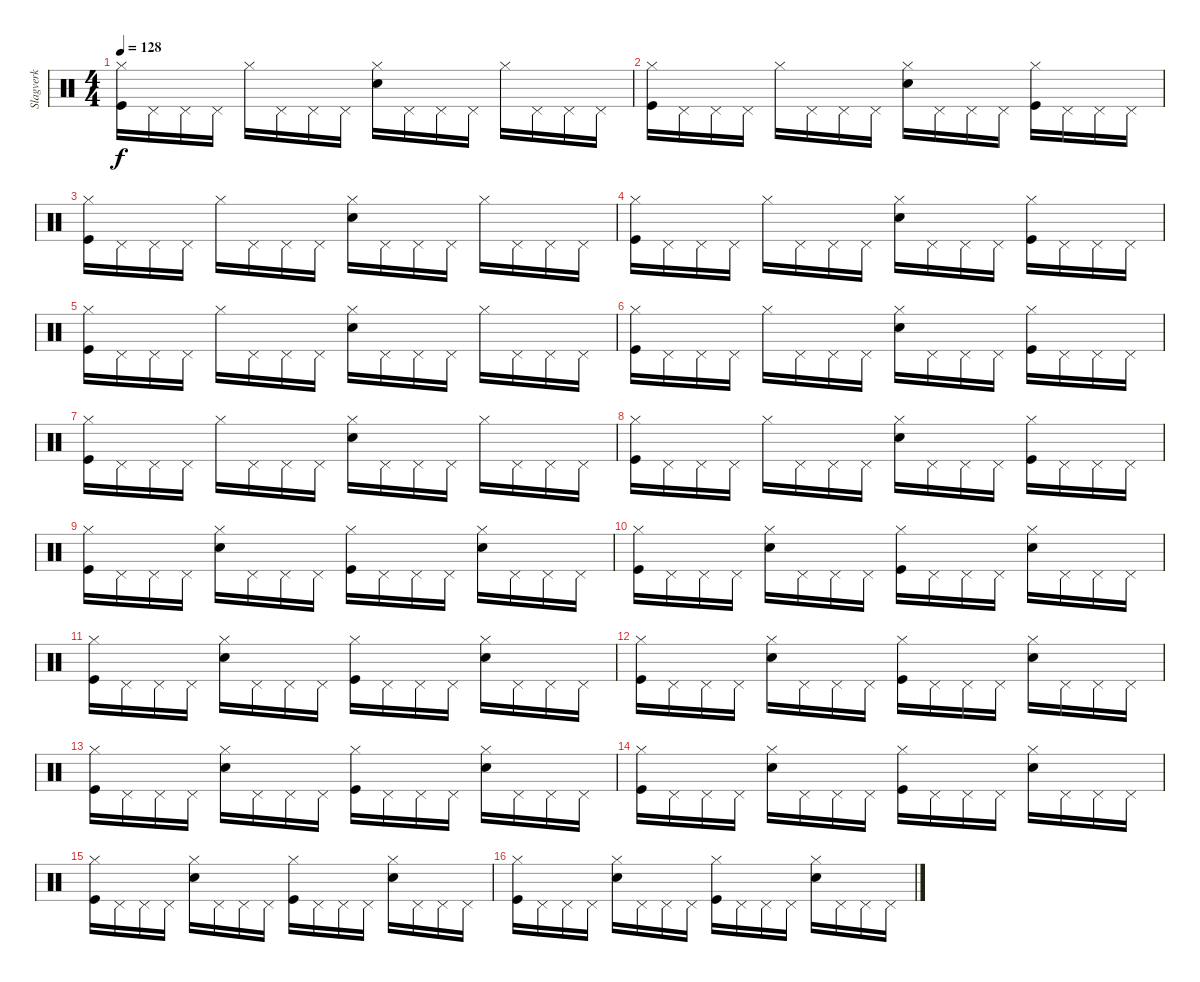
\track ("Slagverk" "Slagverk") {instrument percussion}
\staff {score}
\articulation defaults
\ts (4 4)
\tempo 128
\clef neutral
\ks c
("Kick (hit)" "Hi-Hat (closed)").16{dy f} "Pedal Hi-Hat (hit)".16 "Pedal Hi-Hat (hit)".16 "Pedal Hi-Hat (hit)".16 "Hi-Hat (closed)".16 "Pedal Hi-Hat (hit)".16 "Pedal Hi-Hat (hit)".16 "Pedal Hi-Hat (hit)".16 ("Snare (hit) 2" "Hi-Hat (closed)").16 "Pedal Hi-Hat (hit)".16 "Pedal Hi-Hat (hit)".16 "Pedal Hi-Hat (hit)".16 "Hi-Hat (closed)".16 "Pedal Hi-Hat (hit)".16 "Pedal Hi-Hat (hit)".16 "Pedal Hi-Hat (hit)".16 |
("Kick (hit)" "Hi-Hat (closed)").16 "Pedal Hi-Hat (hit)".16 "Pedal Hi-Hat (hit)".16 "Pedal Hi-Hat (hit)".16 "Hi-Hat (closed)".16 "Pedal Hi-Hat (hit)".16 "Pedal Hi-Hat (hit)".16 "Pedal Hi-Hat (hit)".16 ("Snare (hit) 2" "Hi-Hat (closed)").16 "Pedal Hi-Hat (hit)".16 "Pedal Hi-Hat (hit)".16 "Pedal Hi-Hat (hit)".16 ("Kick (hit)" "Hi-Hat (closed)").16 "Pedal Hi-Hat (hit)".16 "Pedal Hi-Hat (hit)".16 "Pedal Hi-Hat (hit)".16 |
("Kick (hit)" "Hi-Hat (closed)").16 "Pedal Hi-Hat (hit)".16 "Pedal Hi-Hat (hit)".16 "Pedal Hi-Hat (hit)".16 "Hi-Hat (closed)".16 "Pedal Hi-Hat (hit)".16 "Pedal Hi-Hat (hit)".16 "Pedal Hi-Hat (hit)".16 ("Snare (hit) 2" "Hi-Hat (closed)").16 "Pedal Hi-Hat (hit)".16 "Pedal Hi-Hat (hit)".16 "Pedal Hi-Hat (hit)".16 "Hi-Hat (closed)".16 "Pedal Hi-Hat (hit)".16 "Pedal Hi-Hat (hit)".16 "Pedal Hi-Hat (hit)".16 |
("Kick (hit)" "Hi-Hat (closed)").16 "Pedal Hi-Hat (hit)".16 "Pedal Hi-Hat (hit)".16 "Pedal Hi-Hat (hit)".16 "Hi-Hat (closed)".16 "Pedal Hi-Hat (hit)".16 "Pedal Hi-Hat (hit)".16 "Pedal Hi-Hat (hit)".16 ("Snare (hit) 2" "Hi-Hat (closed)").16 "Pedal Hi-Hat (hit)".16 "Pedal Hi-Hat (hit)".16 "Pedal Hi-Hat (hit)".16 ("Kick (hit)" "Hi-Hat (closed)").16 "Pedal Hi-Hat (hit)".16 "Pedal Hi-Hat (hit)".16 "Pedal Hi-Hat (hit)".16 |
("Kick (hit)" "Hi-Hat (closed)").16 "Pedal Hi-Hat (hit)".16 "Pedal Hi-Hat (hit)".16 "Pedal Hi-Hat (hit)".16 "Hi-Hat (closed)".16 "Pedal Hi-Hat (hit)".16 "Pedal Hi-Hat (hit)".16 "Pedal Hi-Hat (hit)".16 ("Snare (hit) 2" "Hi-Hat (closed)").16 "Pedal Hi-Hat (hit)".16 "Pedal Hi-Hat (hit)".16 "Pedal Hi-Hat (hit)".16 "Hi-Hat (closed)".16 "Pedal Hi-Hat (hit)".16 "Pedal Hi-Hat (hit)".16 "Pedal Hi-Hat (hit)".16 |
("Kick (hit)" "Hi-Hat (closed)").16 "Pedal Hi-Hat (hit)".16 "Pedal Hi-Hat (hit)".16 "Pedal Hi-Hat (hit)".16 "Hi-Hat (closed)".16 "Pedal Hi-Hat (hit)".16 "Pedal Hi-Hat (hit)".16 "Pedal Hi-Hat (hit)".16 ("Snare (hit) 2" "Hi-Hat (closed)").16 "Pedal Hi-Hat (hit)".16 "Pedal Hi-Hat (hit)".16 "Pedal Hi-Hat (hit)".16 ("Kick (hit)" "Hi-Hat (closed)").16 "Pedal Hi-Hat (hit)".16 "Pedal Hi-Hat (hit)".16 "Pedal Hi-Hat (hit)".16 |
("Kick (hit)" "Hi-Hat (closed)").16 "Pedal Hi-Hat (hit)".16 "Pedal Hi-Hat (hit)".16 "Pedal Hi-Hat (hit)".16 "Hi-Hat (closed)".16 "Pedal Hi-Hat (hit)".16 "Pedal Hi-Hat (hit)".16 "Pedal Hi-Hat (hit)".16 ("Snare (hit) 2" "Hi-Hat (closed)").16 "Pedal Hi-Hat (hit)".16 "Pedal Hi-Hat (hit)".16 "Pedal Hi-Hat (hit)".16 "Hi-Hat (closed)".16 "Pedal Hi-Hat (hit)".16 "Pedal Hi-Hat (hit)".16 "Pedal Hi-Hat (hit)".16 |
("Kick (hit)" "Hi-Hat (closed)").16 "Pedal Hi-Hat (hit)".16 "Pedal Hi-Hat (hit)".16 "Pedal Hi-Hat (hit)".16 "Hi-Hat (closed)".16 "Pedal Hi-Hat (hit)".16 "Pedal Hi-Hat (hit)".16 "Pedal Hi-Hat (hit)".16 ("Snare (hit) 2" "Hi-Hat (closed)").16 "Pedal Hi-Hat (hit)".16 "Pedal Hi-Hat (hit)".16 "Pedal Hi-Hat (hit)".16 ("Kick (hit)" "Hi-Hat (closed)").16 "Pedal Hi-Hat (hit)".16 "Pedal Hi-Hat (hit)".16 "Pedal Hi-Hat (hit)".16 |
("Kick (hit)" "Hi-Hat (closed)").16 "Pedal Hi-Hat (hit)".16 "Pedal Hi-Hat (hit)".16 "Pedal Hi-Hat (hit)".16 ("Snare (hit) 2" "Hi-Hat (closed)").16 "Pedal Hi-Hat (hit)".16 "Pedal Hi-Hat (hit)".16 "Pedal Hi-Hat (hit)".16 ("Kick (hit)" "Hi-Hat (closed)").16 "Pedal Hi-Hat (hit)".16 "Pedal Hi-Hat (hit)".16 "Pedal Hi-Hat (hit)".16 ("Snare (hit) 2" "Hi-Hat (closed)").16 "Pedal Hi-Hat (hit)".16 "Pedal Hi-Hat (hit)".16 "Pedal Hi-Hat (hit)".16 |
("Kick (hit)" "Hi-Hat (closed)").16 "Pedal Hi-Hat (hit)".16 "Pedal Hi-Hat (hit)".16 "Pedal Hi-Hat (hit)".16 ("Snare (hit) 2" "Hi-Hat (closed)").16 "Pedal Hi-Hat (hit)".16 "Pedal Hi-Hat (hit)".16 "Pedal Hi-Hat (hit)".16 ("Kick (hit)" "Hi-Hat (closed)").16 "Pedal Hi-Hat (hit)".16 "Pedal Hi-Hat (hit)".16 "Pedal Hi-Hat (hit)".16 ("Snare (hit) 2" "Hi-Hat (closed)").16 "Pedal Hi-Hat (hit)".16 "Pedal Hi-Hat (hit)".16 "Pedal Hi-Hat (hit)".16 |
("Kick (hit)" "Hi-Hat (closed)").16 "Pedal Hi-Hat (hit)".16 "Pedal Hi-Hat (hit)".16 "Pedal Hi-Hat (hit)".16 ("Snare (hit) 2" "Hi-Hat (closed)").16 "Pedal Hi-Hat (hit)".16 "Pedal Hi-Hat (hit)".16 "Pedal Hi-Hat (hit)".16 ("Kick (hit)" "Hi-Hat (closed)").16 "Pedal Hi-Hat (hit)".16 "Pedal Hi-Hat (hit)".16 "Pedal Hi-Hat (hit)".16 ("Snare (hit) 2" "Hi-Hat (closed)").16 "Pedal Hi-Hat (hit)".16 "Pedal Hi-Hat (hit)".16 "Pedal Hi-Hat (hit)".16 |
("Kick (hit)" "Hi-Hat (closed)").16 "Pedal Hi-Hat (hit)".16 "Pedal Hi-Hat (hit)".16 "Pedal Hi-Hat (hit)".16 ("Snare (hit) 2" "Hi-Hat (closed)").16 "Pedal Hi-Hat (hit)".16 "Pedal Hi-Hat (hit)".16 "Pedal Hi-Hat (hit)".16 ("Kick (hit)" "Hi-Hat (closed)").16 "Pedal Hi-Hat (hit)".16 "Pedal Hi-Hat (hit)".16 "Pedal Hi-Hat (hit)".16 ("Snare (hit) 2" "Hi-Hat (closed)").16 "Pedal Hi-Hat (hit)".16 "Pedal Hi-Hat (hit)".16 "Pedal Hi-Hat (hit)".16 |
("Kick (hit)" "Hi-Hat (closed)").16 "Pedal Hi-Hat (hit)".16 "Pedal Hi-Hat (hit)".16 "Pedal Hi-Hat (hit)".16 ("Snare (hit) 2" "Hi-Hat (closed)").16 "Pedal Hi-Hat (hit)".16 "Pedal Hi-Hat (hit)".16 "Pedal Hi-Hat (hit)".16 ("Kick (hit)" "Hi-Hat (closed)").16 "Pedal Hi-Hat (hit)".16 "Pedal Hi-Hat (hit)".16 "Pedal Hi-Hat (hit)".16 ("Snare (hit) 2" "Hi-Hat (closed)").16 "Pedal Hi-Hat (hit)".16 "Pedal Hi-Hat (hit)".16 "Pedal Hi-Hat (hit)".16 |
("Kick (hit)" "Hi-Hat (closed)").16 "Pedal Hi-Hat (hit)".16 "Pedal Hi-Hat (hit)".16 "Pedal Hi-Hat (hit)".16 ("Snare (hit) 2" "Hi-Hat (closed)").16 "Pedal Hi-Hat (hit)".16 "Pedal Hi-Hat (hit)".16 "Pedal Hi-Hat (hit)".16 ("Kick (hit)" "Hi-Hat (closed)").16 "Pedal Hi-Hat (hit)".16 "Pedal Hi-Hat (hit)".16 "Pedal Hi-Hat (hit)".16 ("Snare (hit) 2" "Hi-Hat (closed)").16 "Pedal Hi-Hat (hit)".16 "Pedal Hi-Hat (hit)".16 "Pedal Hi-Hat (hit)".16 |
("Kick (hit)" "Hi-Hat (closed)").16 "Pedal Hi-Hat (hit)".16 "Pedal Hi-Hat (hit)".16 "Pedal Hi-Hat (hit)".16 ("Snare (hit) 2" "Hi-Hat (closed)").16 "Pedal Hi-Hat (hit)".16 "Pedal Hi-Hat (hit)".16 "Pedal Hi-Hat (hit)".16 ("Kick (hit)" "Hi-Hat (closed)").16 "Pedal Hi-Hat (hit)".16 "Pedal Hi-Hat (hit)".16 "Pedal Hi-Hat (hit)".16 ("Snare (hit) 2" "Hi-Hat (closed)").16 "Pedal Hi-Hat (hit)".16 "Pedal Hi-Hat (hit)".16 "Pedal Hi-Hat (hit)".16 |
("Kick (hit)" "Hi-Hat (closed)").16 "Pedal Hi-Hat (hit)".16 "Pedal Hi-Hat (hit)".16 "Pedal Hi-Hat (hit)".16 ("Snare (hit) 2" "Hi-Hat (closed)").16 "Pedal Hi-Hat (hit)".16 "Pedal Hi-Hat (hit)".16 "Pedal Hi-Hat (hit)".16 ("Kick (hit)" "Hi-Hat (closed)").16 "Pedal Hi-Hat (hit)".16 "Pedal Hi-Hat (hit)".16 "Pedal Hi-Hat (hit)".16 ("Snare (hit) 2" "Hi-Hat (closed)").16 "Pedal Hi-Hat (hit)".16 "Pedal Hi-Hat (hit)".16 "Pedal Hi-Hat (hit)".16
